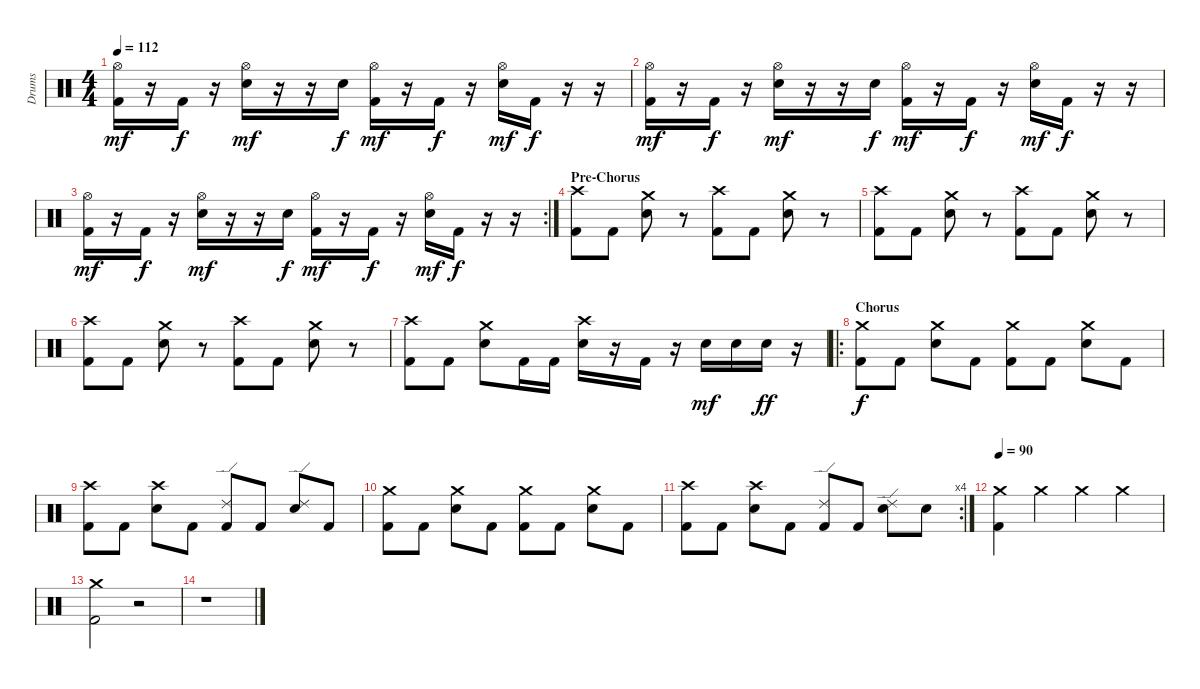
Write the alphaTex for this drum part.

\track ("Drums" "Drums") {instrument percussion}
\staff {score}
\articulation defaults
\ts (4 4)
\tempo 112
\clef neutral
\ks c
("Hi-Hat (open)" "Kick (hit) 2").16{dy mf} r.16 "Kick (hit) 2".16{dy f} r.16 ("Hi-Hat (open)" "Snare (hit) 2").16{dy mf} r.16 r.16 "Snare (hit) 2".16{dy f} ("Hi-Hat (open)" "Kick (hit) 2").16{dy mf} r.16 "Kick (hit) 2".16{dy f} r.16 ("Hi-Hat (open)" "Snare (hit) 2").16{dy mf} "Kick (hit) 2".16{dy f} r.16 r.16 |
("Hi-Hat (open)" "Kick (hit) 2").16{dy mf} r.16 "Kick (hit) 2".16{dy f} r.16 ("Hi-Hat (open)" "Snare (hit) 2").16{dy mf} r.16 r.16 "Snare (hit) 2".16{dy f} ("Hi-Hat (open)" "Kick (hit) 2").16{dy mf} r.16 "Kick (hit) 2".16{dy f} r.16 ("Hi-Hat (open)" "Snare (hit) 2").16{dy mf} "Kick (hit) 2".16{dy f} r.16 r.16 |
\rc 2
("Hi-Hat (open)" "Kick (hit) 2").16{dy mf} r.16 "Kick (hit) 2".16{dy f} r.16 ("Hi-Hat (open)" "Snare (hit) 2").16{dy mf} r.16 r.16 "Snare (hit) 2".16{dy f} ("Hi-Hat (open)" "Kick (hit) 2").16{dy mf} r.16 "Kick (hit) 2".16{dy f} r.16 ("Hi-Hat (open)" "Snare (hit) 2").16{dy mf} "Kick (hit) 2".16{dy f} r.16 r.16 |
\section ("" "Pre-Chorus")
("Crash high (hit)" "Kick (hit) 2").8 "Kick (hit) 2".8 ("Crash medium (hit)" "Snare (hit) 2").8 r.8 ("Crash high (hit)" "Kick (hit) 2").8 "Kick (hit) 2".8 ("Crash medium (hit)" "Snare (hit) 2").8 r.8 |
("Crash high (hit)" "Kick (hit) 2").8 "Kick (hit) 2".8 ("Crash medium (hit)" "Snare (hit) 2").8 r.8 ("Crash high (hit)" "Kick (hit) 2").8 "Kick (hit) 2".8 ("Crash medium (hit)" "Snare (hit) 2").8 r.8 |
("Crash high (hit)" "Kick (hit) 2").8 "Kick (hit) 2".8 ("Crash medium (hit)" "Snare (hit) 2").8 r.8 ("Crash high (hit)" "Kick (hit) 2").8 "Kick (hit) 2".8 ("Crash medium (hit)" "Snare (hit) 2").8 r.8 |
("Crash high (hit)" "Kick (hit) 2").8 "Kick (hit) 2".8 ("Crash medium (hit)" "Snare (hit) 2").8 "Kick (hit) 2".16 "Kick (hit) 2".16 ("Crash high (hit)" "Snare (hit) 2").16 r.16 "Kick (hit) 2".16 r.16 "Snare (hit) 2".16{dy mf} "Snare (hit) 2".16 "Snare (hit) 2".16{dy ff} r.16 |
\ro
\section ("" "Chorus")
("Crash medium (hit)" "Kick (hit) 2").8{dy f} "Kick (hit) 2".8 ("Crash medium (hit)" "Snare (hit) 2").8 "Kick (hit) 2".8 ("Crash medium (hit)" "Kick (hit) 2").8 "Kick (hit) 2".8 ("Crash medium (hit)" "Snare (hit) 2").8 "Kick (hit) 2".8 |
("Crash high (hit)" "Kick (hit) 2").8 "Kick (hit) 2".8 ("Crash high (hit)" "Snare (hit) 2").8 "Kick (hit) 2".8 ("Ride (edge) 2" "Kick (hit) 2").8 "Kick (hit) 2".8 ("Ride (edge) 2" "Snare (hit) 2").8 "Kick (hit) 2".8 |
("Crash medium (hit)" "Kick (hit) 2").8 "Kick (hit) 2".8 ("Crash medium (hit)" "Snare (hit) 2").8 "Kick (hit) 2".8 ("Crash medium (hit)" "Kick (hit) 2").8 "Kick (hit) 2".8 ("Crash medium (hit)" "Snare (hit) 2").8 "Kick (hit) 2".8 |
\rc 4
("Crash high (hit)" "Kick (hit) 2").8 "Kick (hit) 2".8 ("Crash high (hit)" "Snare (hit) 2").8 "Kick (hit) 2".8 ("Ride (edge) 2" "Kick (hit) 2").8 "Kick (hit) 2".8 ("Ride (edge) 2" "Snare (hit) 2").8 "Snare (hit) 2".8 |
\tempo 90
("Crash medium (hit)" "Kick (hit) 2").4 "Crash medium (hit)".4 "Crash medium (hit)".4 "Crash medium (hit)".4 |
("Crash medium (hit)" "Kick (hit) 2").2 r.2 |
r.1
